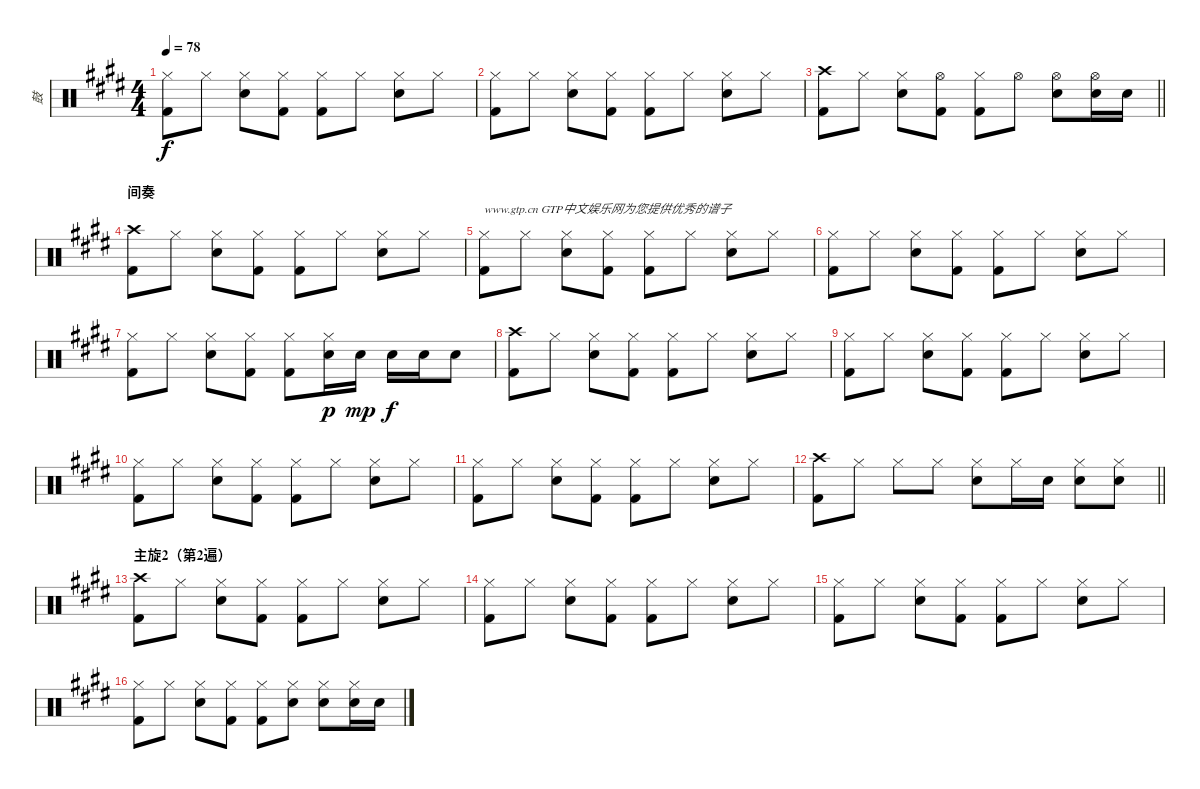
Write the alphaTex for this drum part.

\track ("鼓" "鼓") {instrument percussion}
\staff {score}
\articulation defaults
\ts (4 4)
\tempo 78
\clef neutral
\ks e
("Hi-Hat (closed)" "Kick (hit) 2").8{dy f} "Hi-Hat (closed)".8 ("Hi-Hat (closed)" "Electric Snare (hit)").8 ("Hi-Hat (closed)" "Kick (hit) 2").8 ("Hi-Hat (closed)" "Kick (hit) 2").8 "Hi-Hat (closed)".8 ("Hi-Hat (closed)" "Electric Snare (hit)").8 "Hi-Hat (closed)".8 |
("Hi-Hat (closed)" "Kick (hit) 2").8 "Hi-Hat (closed)".8 ("Hi-Hat (closed)" "Electric Snare (hit)").8 ("Hi-Hat (closed)" "Kick (hit) 2").8 ("Hi-Hat (closed)" "Kick (hit) 2").8 "Hi-Hat (closed)".8 ("Hi-Hat (closed)" "Electric Snare (hit)").8 "Hi-Hat (closed)".8 |
\barLineRight lightlight
("Crash high (hit)" "Kick (hit) 2").8 "Hi-Hat (closed)".8 ("Hi-Hat (closed)" "Electric Snare (hit)").8 ("Hi-Hat (open)" "Kick (hit) 2").8 ("Hi-Hat (closed)" "Kick (hit) 2").8 "Hi-Hat (open)".8 ("Hi-Hat (open)" "Electric Snare (hit)").8 ("Hi-Hat (open)" "Electric Snare (hit)").16 "Electric Snare (hit)".16 |
\section ("" "间奏")
("Crash high (hit)" "Kick (hit) 2").8 "Hi-Hat (closed)".8 ("Hi-Hat (closed)" "Electric Snare (hit)").8 ("Hi-Hat (closed)" "Kick (hit) 2").8 ("Hi-Hat (closed)" "Kick (hit) 2").8 "Hi-Hat (closed)".8 ("Hi-Hat (closed)" "Electric Snare (hit)").8 "Hi-Hat (closed)".8 |
("Hi-Hat (closed)" "Kick (hit) 2").8{txt "www.gtp.cn GTP中文娱乐网为您提供优秀的谱子"} "Hi-Hat (closed)".8 ("Hi-Hat (closed)" "Electric Snare (hit)").8 ("Hi-Hat (closed)" "Kick (hit) 2").8 ("Hi-Hat (closed)" "Kick (hit) 2").8 "Hi-Hat (closed)".8 ("Hi-Hat (closed)" "Electric Snare (hit)").8 "Hi-Hat (closed)".8 |
("Hi-Hat (closed)" "Kick (hit) 2").8 "Hi-Hat (closed)".8 ("Hi-Hat (closed)" "Electric Snare (hit)").8 ("Hi-Hat (closed)" "Kick (hit) 2").8 ("Hi-Hat (closed)" "Kick (hit) 2").8 "Hi-Hat (closed)".8 ("Hi-Hat (closed)" "Electric Snare (hit)").8 "Hi-Hat (closed)".8 |
("Hi-Hat (closed)" "Kick (hit) 2").8 "Hi-Hat (closed)".8 ("Hi-Hat (closed)" "Electric Snare (hit)").8 ("Hi-Hat (closed)" "Kick (hit) 2").8 ("Hi-Hat (closed)" "Kick (hit) 2").8 ("Hi-Hat (closed)" "Electric Snare (hit)").16{dy p} "Electric Snare (hit)".16{dy mp} "Electric Snare (hit)".16{dy f} "Electric Snare (hit)".16 "Electric Snare (hit)".8 |
("Crash high (hit)" "Kick (hit) 2").8 "Hi-Hat (closed)".8 ("Hi-Hat (closed)" "Electric Snare (hit)").8 ("Hi-Hat (closed)" "Kick (hit) 2").8 ("Hi-Hat (closed)" "Kick (hit) 2").8 "Hi-Hat (closed)".8 ("Hi-Hat (closed)" "Electric Snare (hit)").8 "Hi-Hat (closed)".8 |
("Hi-Hat (closed)" "Kick (hit) 2").8 "Hi-Hat (closed)".8 ("Hi-Hat (closed)" "Electric Snare (hit)").8 ("Hi-Hat (closed)" "Kick (hit) 2").8 ("Hi-Hat (closed)" "Kick (hit) 2").8 "Hi-Hat (closed)".8 ("Hi-Hat (closed)" "Electric Snare (hit)").8 "Hi-Hat (closed)".8 |
("Hi-Hat (closed)" "Kick (hit) 2").8 "Hi-Hat (closed)".8 ("Hi-Hat (closed)" "Electric Snare (hit)").8 ("Hi-Hat (closed)" "Kick (hit) 2").8 ("Hi-Hat (closed)" "Kick (hit) 2").8 "Hi-Hat (closed)".8 ("Hi-Hat (closed)" "Electric Snare (hit)").8 "Hi-Hat (closed)".8 |
("Hi-Hat (closed)" "Kick (hit) 2").8 "Hi-Hat (closed)".8 ("Hi-Hat (closed)" "Electric Snare (hit)").8 ("Hi-Hat (closed)" "Kick (hit) 2").8 ("Hi-Hat (closed)" "Kick (hit) 2").8 "Hi-Hat (closed)".8 ("Hi-Hat (closed)" "Electric Snare (hit)").8 "Hi-Hat (closed)".8 |
\barLineRight lightlight
("Crash high (hit)" "Kick (hit) 2").8 "Hi-Hat (closed)".8 "Hi-Hat (closed)".8 "Hi-Hat (closed)".8 ("Hi-Hat (closed)" "Electric Snare (hit)").8 "Hi-Hat (closed)".16 "Electric Snare (hit)".16 ("Hi-Hat (closed)" "Electric Snare (hit)").8 ("Hi-Hat (closed)" "Electric Snare (hit)").8 |
\section ("" "主旋2（第2遍）")
("Crash high (hit)" "Kick (hit) 2").8 "Hi-Hat (closed)".8 ("Hi-Hat (closed)" "Electric Snare (hit)").8 ("Hi-Hat (closed)" "Kick (hit) 2").8 ("Hi-Hat (closed)" "Kick (hit) 2").8 "Hi-Hat (closed)".8 ("Hi-Hat (closed)" "Electric Snare (hit)").8 "Hi-Hat (closed)".8 |
("Hi-Hat (closed)" "Kick (hit) 2").8 "Hi-Hat (closed)".8 ("Hi-Hat (closed)" "Electric Snare (hit)").8 ("Hi-Hat (closed)" "Kick (hit) 2").8 ("Hi-Hat (closed)" "Kick (hit) 2").8 "Hi-Hat (closed)".8 ("Hi-Hat (closed)" "Electric Snare (hit)").8 "Hi-Hat (closed)".8 |
("Hi-Hat (closed)" "Kick (hit) 2").8 "Hi-Hat (closed)".8 ("Hi-Hat (closed)" "Electric Snare (hit)").8 ("Hi-Hat (closed)" "Kick (hit) 2").8 ("Hi-Hat (closed)" "Kick (hit) 2").8 "Hi-Hat (closed)".8 ("Hi-Hat (closed)" "Electric Snare (hit)").8 "Hi-Hat (closed)".8 |
("Hi-Hat (closed)" "Kick (hit) 2").8 "Hi-Hat (closed)".8 ("Hi-Hat (closed)" "Electric Snare (hit)").8 ("Hi-Hat (closed)" "Kick (hit) 2").8 ("Hi-Hat (closed)" "Kick (hit) 2").8 ("Hi-Hat (closed)" "Electric Snare (hit)").8 ("Hi-Hat (closed)" "Electric Snare (hit)").8 ("Hi-Hat (closed)" "Electric Snare (hit)").16 "Electric Snare (hit)".16
